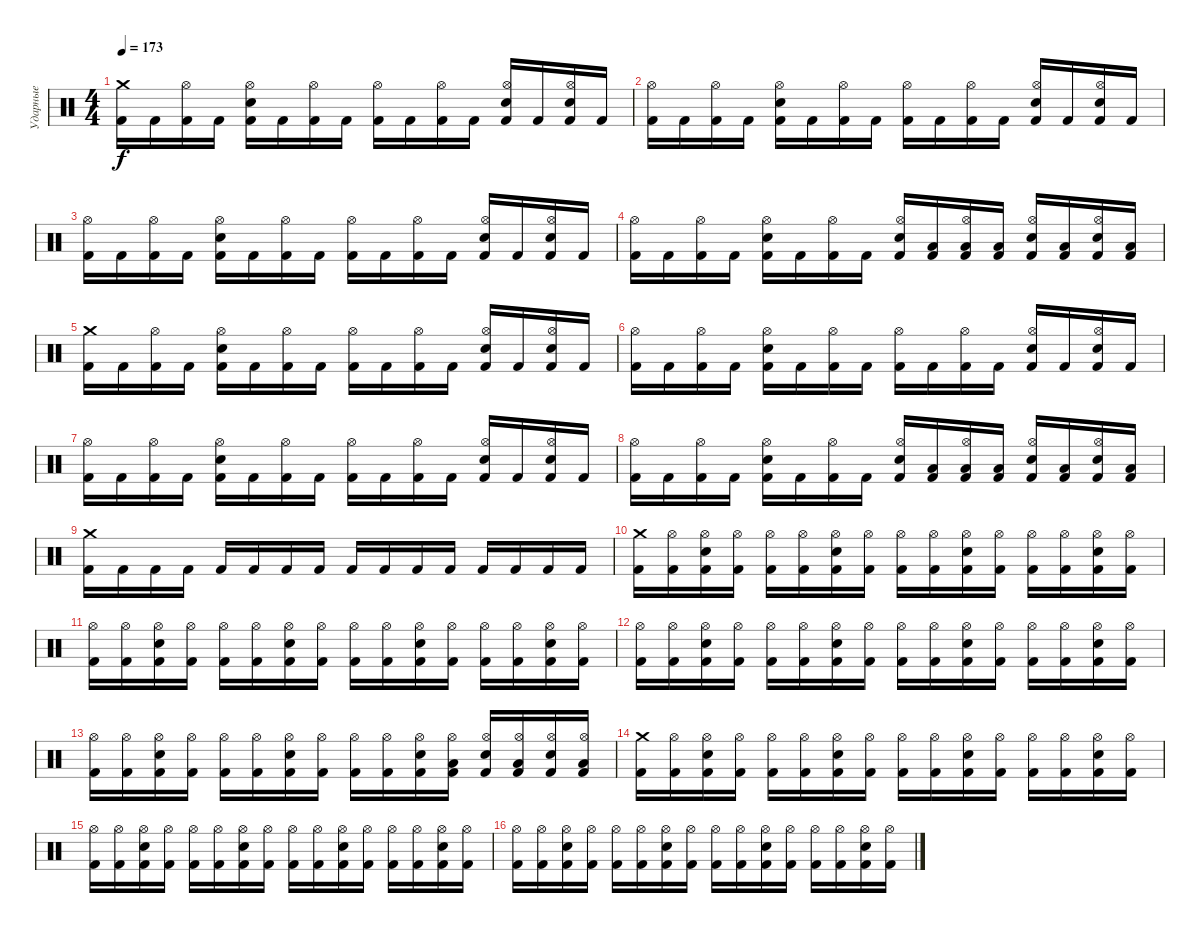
\track ("Ударные" "Ударные") {instrument percussion}
\staff {score}
\articulation defaults
\ts (4 4)
\tempo 173
\clef neutral
\ks c
("Crash medium (hit)" "Kick (hit) 2").16{dy f} "Kick (hit) 2".16 ("Hi-Hat (open)" "Kick (hit) 2").16 "Kick (hit) 2".16 ("Hi-Hat (open)" "Electric Snare (hit)" "Kick (hit) 2").16 "Kick (hit) 2".16 ("Hi-Hat (open)" "Kick (hit) 2").16 "Kick (hit) 2".16 ("Hi-Hat (open)" "Kick (hit) 2").16 "Kick (hit) 2".16 ("Hi-Hat (open)" "Kick (hit) 2").16 "Kick (hit) 2".16 ("Hi-Hat (open)" "Electric Snare (hit)" "Kick (hit) 2").16 "Kick (hit) 2".16 ("Hi-Hat (open)" "Electric Snare (hit)" "Kick (hit) 2").16 "Kick (hit) 2".16 |
("Hi-Hat (open)" "Kick (hit) 2").16 "Kick (hit) 2".16 ("Hi-Hat (open)" "Kick (hit) 2").16 "Kick (hit) 2".16 ("Hi-Hat (open)" "Electric Snare (hit)" "Kick (hit) 2").16 "Kick (hit) 2".16 ("Hi-Hat (open)" "Kick (hit) 2").16 "Kick (hit) 2".16 ("Hi-Hat (open)" "Kick (hit) 2").16 "Kick (hit) 2".16 ("Hi-Hat (open)" "Kick (hit) 2").16 "Kick (hit) 2".16 ("Hi-Hat (open)" "Electric Snare (hit)" "Kick (hit) 2").16 "Kick (hit) 2".16 ("Hi-Hat (open)" "Electric Snare (hit)" "Kick (hit) 2").16 "Kick (hit) 2".16 |
("Hi-Hat (open)" "Kick (hit) 2").16 "Kick (hit) 2".16 ("Hi-Hat (open)" "Kick (hit) 2").16 "Kick (hit) 2".16 ("Hi-Hat (open)" "Electric Snare (hit)" "Kick (hit) 2").16 "Kick (hit) 2".16 ("Hi-Hat (open)" "Kick (hit) 2").16 "Kick (hit) 2".16 ("Hi-Hat (open)" "Kick (hit) 2").16 "Kick (hit) 2".16 ("Hi-Hat (open)" "Kick (hit) 2").16 "Kick (hit) 2".16 ("Hi-Hat (open)" "Electric Snare (hit)" "Kick (hit) 2").16 "Kick (hit) 2".16 ("Hi-Hat (open)" "Electric Snare (hit)" "Kick (hit) 2").16 "Kick (hit) 2".16 |
("Hi-Hat (open)" "Kick (hit) 2").16 "Kick (hit) 2".16 ("Hi-Hat (open)" "Kick (hit) 2").16 "Kick (hit) 2".16 ("Hi-Hat (open)" "Electric Snare (hit)" "Kick (hit) 2").16 "Kick (hit) 2".16 ("Hi-Hat (open)" "Kick (hit) 2").16 "Kick (hit) 2".16 ("Hi-Hat (open)" "Electric Snare (hit)" "Kick (hit) 2").16 ("Low Tom (hit)" "Kick (hit) 2").16 ("Hi-Hat (open)" "Low Tom (hit)" "Kick (hit) 2").16 ("Low Tom (hit)" "Kick (hit) 2").16 ("Hi-Hat (open)" "Electric Snare (hit)" "Kick (hit) 2").16 ("Low Tom (hit)" "Kick (hit) 2").16 ("Hi-Hat (open)" "Electric Snare (hit)" "Kick (hit) 2").16 ("Low Tom (hit)" "Kick (hit) 2").16 |
("Crash medium (hit)" "Kick (hit) 2").16 "Kick (hit) 2".16 ("Hi-Hat (open)" "Kick (hit) 2").16 "Kick (hit) 2".16 ("Hi-Hat (open)" "Electric Snare (hit)" "Kick (hit) 2").16 "Kick (hit) 2".16 ("Hi-Hat (open)" "Kick (hit) 2").16 "Kick (hit) 2".16 ("Hi-Hat (open)" "Kick (hit) 2").16 "Kick (hit) 2".16 ("Hi-Hat (open)" "Kick (hit) 2").16 "Kick (hit) 2".16 ("Hi-Hat (open)" "Electric Snare (hit)" "Kick (hit) 2").16 "Kick (hit) 2".16 ("Hi-Hat (open)" "Electric Snare (hit)" "Kick (hit) 2").16 "Kick (hit) 2".16 |
("Hi-Hat (open)" "Kick (hit) 2").16 "Kick (hit) 2".16 ("Hi-Hat (open)" "Kick (hit) 2").16 "Kick (hit) 2".16 ("Hi-Hat (open)" "Electric Snare (hit)" "Kick (hit) 2").16 "Kick (hit) 2".16 ("Hi-Hat (open)" "Kick (hit) 2").16 "Kick (hit) 2".16 ("Hi-Hat (open)" "Kick (hit) 2").16 "Kick (hit) 2".16 ("Hi-Hat (open)" "Kick (hit) 2").16 "Kick (hit) 2".16 ("Hi-Hat (open)" "Electric Snare (hit)" "Kick (hit) 2").16 "Kick (hit) 2".16 ("Hi-Hat (open)" "Electric Snare (hit)" "Kick (hit) 2").16 "Kick (hit) 2".16 |
("Hi-Hat (open)" "Kick (hit) 2").16 "Kick (hit) 2".16 ("Hi-Hat (open)" "Kick (hit) 2").16 "Kick (hit) 2".16 ("Hi-Hat (open)" "Electric Snare (hit)" "Kick (hit) 2").16 "Kick (hit) 2".16 ("Hi-Hat (open)" "Kick (hit) 2").16 "Kick (hit) 2".16 ("Hi-Hat (open)" "Kick (hit) 2").16 "Kick (hit) 2".16 ("Hi-Hat (open)" "Kick (hit) 2").16 "Kick (hit) 2".16 ("Hi-Hat (open)" "Electric Snare (hit)" "Kick (hit) 2").16 "Kick (hit) 2".16 ("Hi-Hat (open)" "Electric Snare (hit)" "Kick (hit) 2").16 "Kick (hit) 2".16 |
("Hi-Hat (open)" "Kick (hit) 2").16 "Kick (hit) 2".16 ("Hi-Hat (open)" "Kick (hit) 2").16 "Kick (hit) 2".16 ("Hi-Hat (open)" "Electric Snare (hit)" "Kick (hit) 2").16 "Kick (hit) 2".16 ("Hi-Hat (open)" "Kick (hit) 2").16 "Kick (hit) 2".16 ("Hi-Hat (open)" "Electric Snare (hit)" "Kick (hit) 2").16 ("Low Tom (hit)" "Kick (hit) 2").16 ("Hi-Hat (open)" "Low Tom (hit)" "Kick (hit) 2").16 ("Low Tom (hit)" "Kick (hit) 2").16 ("Hi-Hat (open)" "Electric Snare (hit)" "Kick (hit) 2").16 ("Low Tom (hit)" "Kick (hit) 2").16 ("Hi-Hat (open)" "Electric Snare (hit)" "Kick (hit) 2").16 ("Low Tom (hit)" "Kick (hit) 2").16 |
("Crash medium (hit)" "Kick (hit) 2").16 "Kick (hit) 2".16 "Kick (hit) 2".16 "Kick (hit) 2".16 "Kick (hit) 2".16 "Kick (hit) 2".16 "Kick (hit) 2".16 "Kick (hit) 2".16 "Kick (hit) 2".16 "Kick (hit) 2".16 "Kick (hit) 2".16 "Kick (hit) 2".16 "Kick (hit) 2".16 "Kick (hit) 2".16 "Kick (hit) 2".16 "Kick (hit) 2".16 |
("Crash medium (hit)" "Kick (hit) 2").16 ("Hi-Hat (open)" "Kick (hit) 2").16 ("Hi-Hat (open)" "Electric Snare (hit)" "Kick (hit) 2").16 ("Hi-Hat (open)" "Kick (hit) 2").16 ("Hi-Hat (open)" "Kick (hit) 2").16 ("Hi-Hat (open)" "Kick (hit) 2").16 ("Hi-Hat (open)" "Electric Snare (hit)" "Kick (hit) 2").16 ("Hi-Hat (open)" "Kick (hit) 2").16 ("Hi-Hat (open)" "Kick (hit) 2").16 ("Hi-Hat (open)" "Kick (hit) 2").16 ("Hi-Hat (open)" "Electric Snare (hit)" "Kick (hit) 2").16 ("Hi-Hat (open)" "Kick (hit) 2").16 ("Hi-Hat (open)" "Kick (hit) 2").16 ("Hi-Hat (open)" "Kick (hit) 2").16 ("Hi-Hat (open)" "Electric Snare (hit)" "Kick (hit) 2").16 ("Hi-Hat (open)" "Kick (hit) 2").16 |
("Hi-Hat (open)" "Kick (hit) 2").16 ("Hi-Hat (open)" "Kick (hit) 2").16 ("Hi-Hat (open)" "Electric Snare (hit)" "Kick (hit) 2").16 ("Hi-Hat (open)" "Kick (hit) 2").16 ("Hi-Hat (open)" "Kick (hit) 2").16 ("Hi-Hat (open)" "Kick (hit) 2").16 ("Hi-Hat (open)" "Electric Snare (hit)" "Kick (hit) 2").16 ("Hi-Hat (open)" "Kick (hit) 2").16 ("Hi-Hat (open)" "Kick (hit) 2").16 ("Hi-Hat (open)" "Kick (hit) 2").16 ("Hi-Hat (open)" "Electric Snare (hit)" "Kick (hit) 2").16 ("Hi-Hat (open)" "Kick (hit) 2").16 ("Hi-Hat (open)" "Kick (hit) 2").16 ("Hi-Hat (open)" "Kick (hit) 2").16 ("Hi-Hat (open)" "Electric Snare (hit)" "Kick (hit) 2").16 ("Hi-Hat (open)" "Kick (hit) 2").16 |
("Hi-Hat (open)" "Kick (hit) 2").16 ("Hi-Hat (open)" "Kick (hit) 2").16 ("Hi-Hat (open)" "Electric Snare (hit)" "Kick (hit) 2").16 ("Hi-Hat (open)" "Kick (hit) 2").16 ("Hi-Hat (open)" "Kick (hit) 2").16 ("Hi-Hat (open)" "Kick (hit) 2").16 ("Hi-Hat (open)" "Electric Snare (hit)" "Kick (hit) 2").16 ("Hi-Hat (open)" "Kick (hit) 2").16 ("Hi-Hat (open)" "Kick (hit) 2").16 ("Hi-Hat (open)" "Kick (hit) 2").16 ("Hi-Hat (open)" "Electric Snare (hit)" "Kick (hit) 2").16 ("Hi-Hat (open)" "Kick (hit) 2").16 ("Hi-Hat (open)" "Kick (hit) 2").16 ("Hi-Hat (open)" "Kick (hit) 2").16 ("Hi-Hat (open)" "Electric Snare (hit)" "Kick (hit) 2").16 ("Hi-Hat (open)" "Kick (hit) 2").16 |
("Hi-Hat (open)" "Kick (hit) 2").16 ("Hi-Hat (open)" "Kick (hit) 2").16 ("Hi-Hat (open)" "Electric Snare (hit)" "Kick (hit) 2").16 ("Hi-Hat (open)" "Kick (hit) 2").16 ("Hi-Hat (open)" "Kick (hit) 2").16 ("Hi-Hat (open)" "Kick (hit) 2").16 ("Hi-Hat (open)" "Electric Snare (hit)" "Kick (hit) 2").16 ("Hi-Hat (open)" "Kick (hit) 2").16 ("Hi-Hat (open)" "Kick (hit) 2").16 ("Hi-Hat (open)" "Kick (hit) 2").16 ("Hi-Hat (open)" "Electric Snare (hit)" "Kick (hit) 2").16 ("Hi-Hat (open)" "Low Tom (hit)" "Kick (hit) 2").16 ("Hi-Hat (open)" "Electric Snare (hit)" "Kick (hit) 2").16 ("Hi-Hat (open)" "Low Tom (hit)" "Kick (hit) 2").16 ("Hi-Hat (open)" "Electric Snare (hit)" "Kick (hit) 2").16 ("Hi-Hat (open)" "Low Tom (hit)" "Kick (hit) 2").16 |
("Crash medium (hit)" "Kick (hit) 2").16 ("Hi-Hat (open)" "Kick (hit) 2").16 ("Hi-Hat (open)" "Electric Snare (hit)" "Kick (hit) 2").16 ("Hi-Hat (open)" "Kick (hit) 2").16 ("Hi-Hat (open)" "Kick (hit) 2").16 ("Hi-Hat (open)" "Kick (hit) 2").16 ("Hi-Hat (open)" "Electric Snare (hit)" "Kick (hit) 2").16 ("Hi-Hat (open)" "Kick (hit) 2").16 ("Hi-Hat (open)" "Kick (hit) 2").16 ("Hi-Hat (open)" "Kick (hit) 2").16 ("Hi-Hat (open)" "Electric Snare (hit)" "Kick (hit) 2").16 ("Hi-Hat (open)" "Kick (hit) 2").16 ("Hi-Hat (open)" "Kick (hit) 2").16 ("Hi-Hat (open)" "Kick (hit) 2").16 ("Hi-Hat (open)" "Electric Snare (hit)" "Kick (hit) 2").16 ("Hi-Hat (open)" "Kick (hit) 2").16 |
("Hi-Hat (open)" "Kick (hit) 2").16 ("Hi-Hat (open)" "Kick (hit) 2").16 ("Hi-Hat (open)" "Electric Snare (hit)" "Kick (hit) 2").16 ("Hi-Hat (open)" "Kick (hit) 2").16 ("Hi-Hat (open)" "Kick (hit) 2").16 ("Hi-Hat (open)" "Kick (hit) 2").16 ("Hi-Hat (open)" "Electric Snare (hit)" "Kick (hit) 2").16 ("Hi-Hat (open)" "Kick (hit) 2").16 ("Hi-Hat (open)" "Kick (hit) 2").16 ("Hi-Hat (open)" "Kick (hit) 2").16 ("Hi-Hat (open)" "Electric Snare (hit)" "Kick (hit) 2").16 ("Hi-Hat (open)" "Kick (hit) 2").16 ("Hi-Hat (open)" "Kick (hit) 2").16 ("Hi-Hat (open)" "Kick (hit) 2").16 ("Hi-Hat (open)" "Electric Snare (hit)" "Kick (hit) 2").16 ("Hi-Hat (open)" "Kick (hit) 2").16 |
("Hi-Hat (open)" "Kick (hit) 2").16 ("Hi-Hat (open)" "Kick (hit) 2").16 ("Hi-Hat (open)" "Electric Snare (hit)" "Kick (hit) 2").16 ("Hi-Hat (open)" "Kick (hit) 2").16 ("Hi-Hat (open)" "Kick (hit) 2").16 ("Hi-Hat (open)" "Kick (hit) 2").16 ("Hi-Hat (open)" "Electric Snare (hit)" "Kick (hit) 2").16 ("Hi-Hat (open)" "Kick (hit) 2").16 ("Hi-Hat (open)" "Kick (hit) 2").16 ("Hi-Hat (open)" "Kick (hit) 2").16 ("Hi-Hat (open)" "Electric Snare (hit)" "Kick (hit) 2").16 ("Hi-Hat (open)" "Kick (hit) 2").16 ("Hi-Hat (open)" "Kick (hit) 2").16 ("Hi-Hat (open)" "Kick (hit) 2").16 ("Hi-Hat (open)" "Electric Snare (hit)" "Kick (hit) 2").16 ("Hi-Hat (open)" "Kick (hit) 2").16
